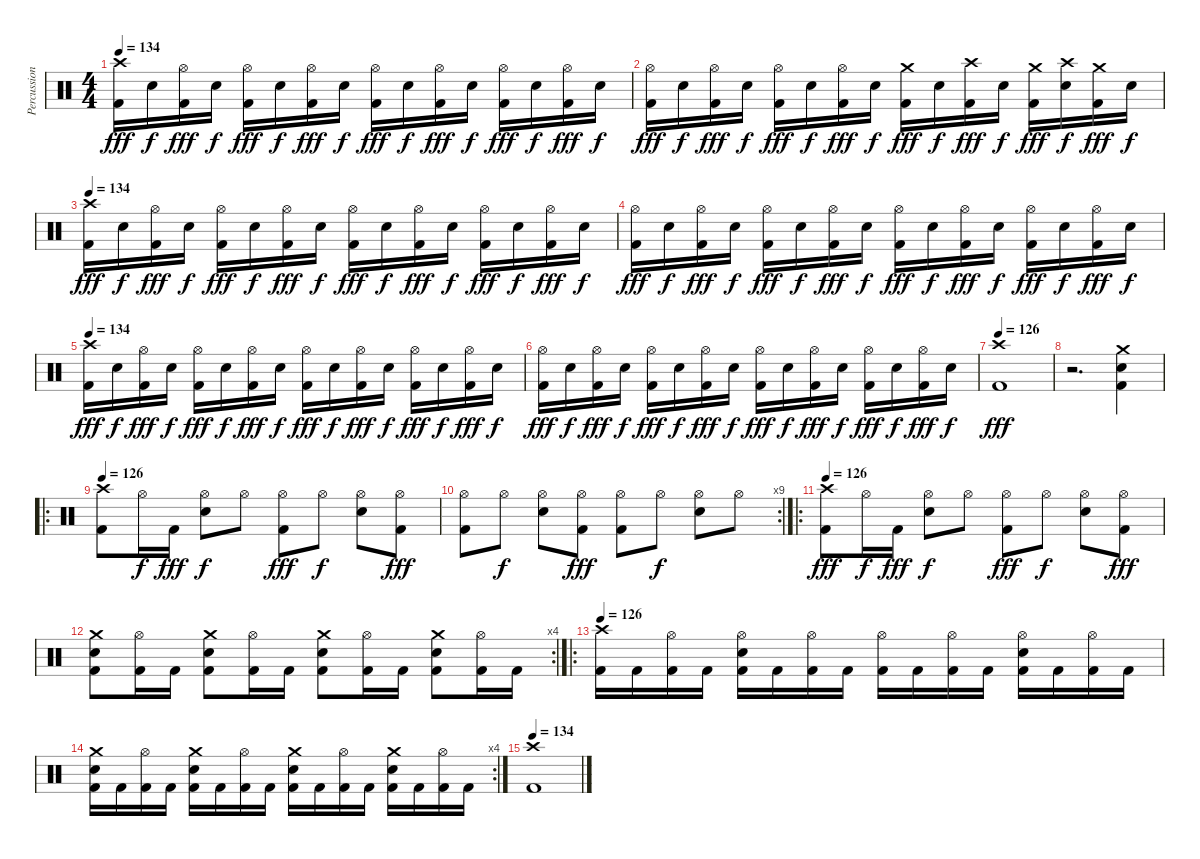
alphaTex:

\track ("Percussion" "Percussion") {instrument percussion}
\staff {score}
\articulation defaults
\ts (4 4)
\tempo 134
\clef neutral
\ks c
("Crash high (hit)" "Kick (hit) 2").16{dy fff} "Electric Snare (hit)".16{dy f} ("Hi-Hat (open)" "Kick (hit) 2").16{dy fff} "Electric Snare (hit)".16{dy f} ("Hi-Hat (open)" "Kick (hit) 2").16{dy fff} "Electric Snare (hit)".16{dy f} ("Hi-Hat (open)" "Kick (hit) 2").16{dy fff} "Electric Snare (hit)".16{dy f} ("Hi-Hat (open)" "Kick (hit) 2").16{dy fff} "Electric Snare (hit)".16{dy f} ("Hi-Hat (open)" "Kick (hit) 2").16{dy fff} "Electric Snare (hit)".16{dy f} ("Hi-Hat (open)" "Kick (hit) 2").16{dy fff} "Electric Snare (hit)".16{dy f} ("Hi-Hat (open)" "Kick (hit) 2").16{dy fff} "Electric Snare (hit)".16{dy f} |
("Hi-Hat (open)" "Kick (hit) 2").16{dy fff} "Electric Snare (hit)".16{dy f} ("Hi-Hat (open)" "Kick (hit) 2").16{dy fff} "Electric Snare (hit)".16{dy f} ("Hi-Hat (open)" "Kick (hit) 2").16{dy fff} "Electric Snare (hit)".16{dy f} ("Hi-Hat (open)" "Kick (hit) 2").16{dy fff} "Electric Snare (hit)".16{dy f} ("Crash medium (hit)" "Kick (hit) 2").16{dy fff} "Electric Snare (hit)".16{dy f} ("Crash high (hit)" "Kick (hit) 2").16{dy fff} "Electric Snare (hit)".16{dy f} ("Crash medium (hit)" "Kick (hit) 2").16{dy fff} ("Crash high (hit)" "Electric Snare (hit)").16{dy f} ("Crash medium (hit)" "Kick (hit) 2").16{dy fff} "Electric Snare (hit)".16{dy f} |
\tempo 134
("Crash high (hit)" "Kick (hit) 2").16{dy fff} "Electric Snare (hit)".16{dy f} ("Hi-Hat (open)" "Kick (hit) 2").16{dy fff} "Electric Snare (hit)".16{dy f} ("Hi-Hat (open)" "Kick (hit) 2").16{dy fff} "Electric Snare (hit)".16{dy f} ("Hi-Hat (open)" "Kick (hit) 2").16{dy fff} "Electric Snare (hit)".16{dy f} ("Hi-Hat (open)" "Kick (hit) 2").16{dy fff} "Electric Snare (hit)".16{dy f} ("Hi-Hat (open)" "Kick (hit) 2").16{dy fff} "Electric Snare (hit)".16{dy f} ("Hi-Hat (open)" "Kick (hit) 2").16{dy fff} "Electric Snare (hit)".16{dy f} ("Hi-Hat (open)" "Kick (hit) 2").16{dy fff} "Electric Snare (hit)".16{dy f} |
("Hi-Hat (open)" "Kick (hit) 2").16{dy fff} "Electric Snare (hit)".16{dy f} ("Hi-Hat (open)" "Kick (hit) 2").16{dy fff} "Electric Snare (hit)".16{dy f} ("Hi-Hat (open)" "Kick (hit) 2").16{dy fff} "Electric Snare (hit)".16{dy f} ("Hi-Hat (open)" "Kick (hit) 2").16{dy fff} "Electric Snare (hit)".16{dy f} ("Hi-Hat (open)" "Kick (hit) 2").16{dy fff} "Electric Snare (hit)".16{dy f} ("Hi-Hat (open)" "Kick (hit) 2").16{dy fff} "Electric Snare (hit)".16{dy f} ("Hi-Hat (open)" "Kick (hit) 2").16{dy fff} "Electric Snare (hit)".16{dy f} ("Hi-Hat (open)" "Kick (hit) 2").16{dy fff} "Electric Snare (hit)".16{dy f} |
\tempo 134
("Crash high (hit)" "Kick (hit) 2").16{dy fff} "Electric Snare (hit)".16{dy f} ("Hi-Hat (open)" "Kick (hit) 2").16{dy fff} "Electric Snare (hit)".16{dy f} ("Hi-Hat (open)" "Kick (hit) 2").16{dy fff} "Electric Snare (hit)".16{dy f} ("Hi-Hat (open)" "Kick (hit) 2").16{dy fff} "Electric Snare (hit)".16{dy f} ("Hi-Hat (open)" "Kick (hit) 2").16{dy fff} "Electric Snare (hit)".16{dy f} ("Hi-Hat (open)" "Kick (hit) 2").16{dy fff} "Electric Snare (hit)".16{dy f} ("Hi-Hat (open)" "Kick (hit) 2").16{dy fff} "Electric Snare (hit)".16{dy f} ("Hi-Hat (open)" "Kick (hit) 2").16{dy fff} "Electric Snare (hit)".16{dy f} |
("Hi-Hat (open)" "Kick (hit) 2").16{dy fff} "Electric Snare (hit)".16{dy f} ("Hi-Hat (open)" "Kick (hit) 2").16{dy fff} "Electric Snare (hit)".16{dy f} ("Hi-Hat (open)" "Kick (hit) 2").16{dy fff} "Electric Snare (hit)".16{dy f} ("Hi-Hat (open)" "Kick (hit) 2").16{dy fff} "Electric Snare (hit)".16{dy f} ("Hi-Hat (open)" "Kick (hit) 2").16{dy fff} "Electric Snare (hit)".16{dy f} ("Hi-Hat (open)" "Kick (hit) 2").16{dy fff} "Electric Snare (hit)".16{dy f} ("Hi-Hat (open)" "Kick (hit) 2").16{dy fff} "Electric Snare (hit)".16{dy f} ("Hi-Hat (open)" "Kick (hit) 2").16{dy fff} "Electric Snare (hit)".16{dy f} |
\tempo 126
("Crash high (hit)" "Kick (hit) 2").1{dy fff} |
r.2{d} ("Crash medium (hit)" "Electric Snare (hit)" "Kick (hit) 2").4 |
\ro
\tempo 126
("Crash high (hit)" "Kick (hit) 2").8 "Hi-Hat (open)".16{dy f} "Kick (hit) 2".16{dy fff} ("Hi-Hat (open)" "Electric Snare (hit)").8{dy f} "Hi-Hat (open)".8 ("Hi-Hat (open)" "Kick (hit) 2").8{dy fff} "Hi-Hat (open)".8{dy f} ("Hi-Hat (open)" "Electric Snare (hit)").8 ("Hi-Hat (open)" "Kick (hit) 2").8{dy fff} |
\rc 9
("Hi-Hat (open)" "Kick (hit) 2").8 "Hi-Hat (open)".8{dy f} ("Hi-Hat (open)" "Electric Snare (hit)").8 ("Hi-Hat (open)" "Kick (hit) 2").8{dy fff} ("Hi-Hat (open)" "Kick (hit) 2").8 "Hi-Hat (open)".8{dy f} ("Hi-Hat (open)" "Electric Snare (hit)").8 "Hi-Hat (open)".8 |
\ro
\tempo 126
("Crash high (hit)" "Kick (hit) 2").8{dy fff} "Hi-Hat (open)".16{dy f} "Kick (hit) 2".16{dy fff} ("Hi-Hat (open)" "Electric Snare (hit)").8{dy f} "Hi-Hat (open)".8 ("Hi-Hat (open)" "Kick (hit) 2").8{dy fff} "Hi-Hat (open)".8{dy f} ("Hi-Hat (open)" "Electric Snare (hit)").8 ("Hi-Hat (open)" "Kick (hit) 2").8{dy fff} |
\rc 4
("Crash medium (hit)" "Electric Snare (hit)" "Kick (hit) 2").8 ("Hi-Hat (open)" "Kick (hit) 2").16 "Kick (hit) 2".16 ("Crash medium (hit)" "Electric Snare (hit)" "Kick (hit) 2").8 ("Hi-Hat (open)" "Kick (hit) 2").16 "Kick (hit) 2".16 ("Crash medium (hit)" "Electric Snare (hit)" "Kick (hit) 2").8 ("Hi-Hat (open)" "Kick (hit) 2").16 "Kick (hit) 2".16 ("Crash medium (hit)" "Electric Snare (hit)" "Kick (hit) 2").8 ("Hi-Hat (open)" "Kick (hit) 2").16 "Kick (hit) 2".16 |
\ro
\tempo 126
("Crash high (hit)" "Kick (hit) 2").16 "Kick (hit) 2".16 ("Hi-Hat (open)" "Kick (hit) 2").16 "Kick (hit) 2".16 ("Hi-Hat (open)" "Electric Snare (hit)" "Kick (hit) 2").16 "Kick (hit) 2".16 ("Hi-Hat (open)" "Kick (hit) 2").16 "Kick (hit) 2".16 ("Hi-Hat (open)" "Kick (hit) 2").16 "Kick (hit) 2".16 ("Hi-Hat (open)" "Kick (hit) 2").16 "Kick (hit) 2".16 ("Hi-Hat (open)" "Electric Snare (hit)" "Kick (hit) 2").16 "Kick (hit) 2".16 ("Hi-Hat (open)" "Kick (hit) 2").16 "Kick (hit) 2".16 |
\rc 4
("Crash medium (hit)" "Electric Snare (hit)" "Kick (hit) 2").16 "Kick (hit) 2".16 ("Hi-Hat (open)" "Kick (hit) 2").16 "Kick (hit) 2".16 ("Crash medium (hit)" "Electric Snare (hit)" "Kick (hit) 2").16 "Kick (hit) 2".16 ("Hi-Hat (open)" "Kick (hit) 2").16 "Kick (hit) 2".16 ("Crash medium (hit)" "Electric Snare (hit)" "Kick (hit) 2").16 "Kick (hit) 2".16 ("Hi-Hat (open)" "Kick (hit) 2").16 "Kick (hit) 2".16 ("Crash medium (hit)" "Electric Snare (hit)" "Kick (hit) 2").16 "Kick (hit) 2".16 ("Hi-Hat (open)" "Kick (hit) 2").16 "Kick (hit) 2".16 |
\tempo 134
("Crash high (hit)" "Kick (hit) 2").1
